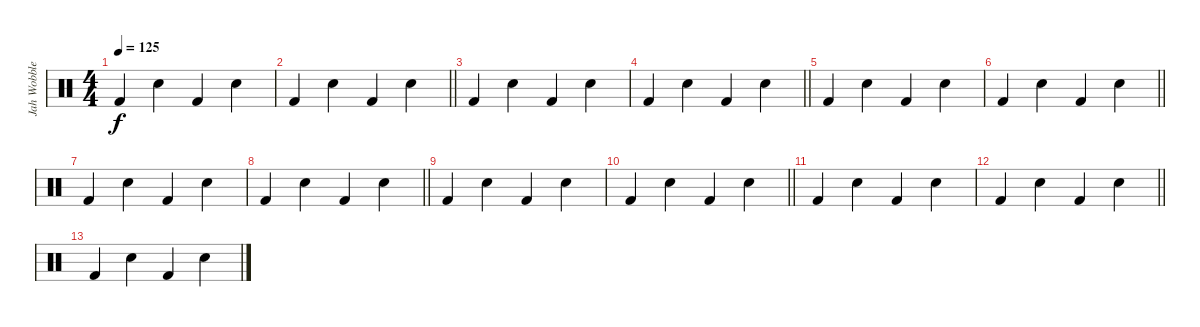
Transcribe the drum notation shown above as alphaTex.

\track ("Jah Wobble  (drums)" "Jah Wobble") {instrument percussion}
\staff {score}
\articulation defaults
\ts (4 4)
\tempo 125
\clef neutral
\ks c "Kick (hit) 2".4{dy f volume 11} "Electric Snare (hit)".4 "Kick (hit) 2".4 "Electric Snare (hit)".4
|
\barLineRight lightlight "Kick (hit) 2".4 "Electric Snare (hit)".4 "Kick (hit) 2".4 "Electric Snare (hit)".4
|
"Kick (hit) 2".4{volume 9} "Electric Snare (hit)".4 "Kick (hit) 2".4 "Electric Snare (hit)".4 |
\barLineRight lightlight "Kick (hit) 2".4 "Electric Snare (hit)".4 "Kick (hit) 2".4 "Electric Snare (hit)".4
|
"Kick (hit) 2".4{volume 7} "Electric Snare (hit)".4 "Kick (hit) 2".4 "Electric Snare (hit)".4 |
\barLineRight lightlight "Kick (hit) 2".4 "Electric Snare (hit)".4 "Kick (hit) 2".4 "Electric Snare (hit)".4
|
"Kick (hit) 2".4{volume 6} "Electric Snare (hit)".4 "Kick (hit) 2".4 "Electric Snare (hit)".4 |
\barLineRight lightlight "Kick (hit) 2".4 "Electric Snare (hit)".4 "Kick (hit) 2".4 "Electric Snare (hit)".4
|
"Kick (hit) 2".4{volume 5} "Electric Snare (hit)".4 "Kick (hit) 2".4 "Electric Snare (hit)".4 |
\barLineRight lightlight "Kick (hit) 2".4 "Electric Snare (hit)".4 "Kick (hit) 2".4 "Electric Snare (hit)".4
|
"Kick (hit) 2".4{volume 4} "Electric Snare (hit)".4 "Kick (hit) 2".4 "Electric Snare (hit)".4 |
\barLineRight lightlight "Kick (hit) 2".4 "Electric Snare (hit)".4 "Kick (hit) 2".4 "Electric Snare (hit)".4
|
"Kick (hit) 2".4{volume 3} "Electric Snare (hit)".4 "Kick (hit) 2".4 "Electric Snare (hit)".4
